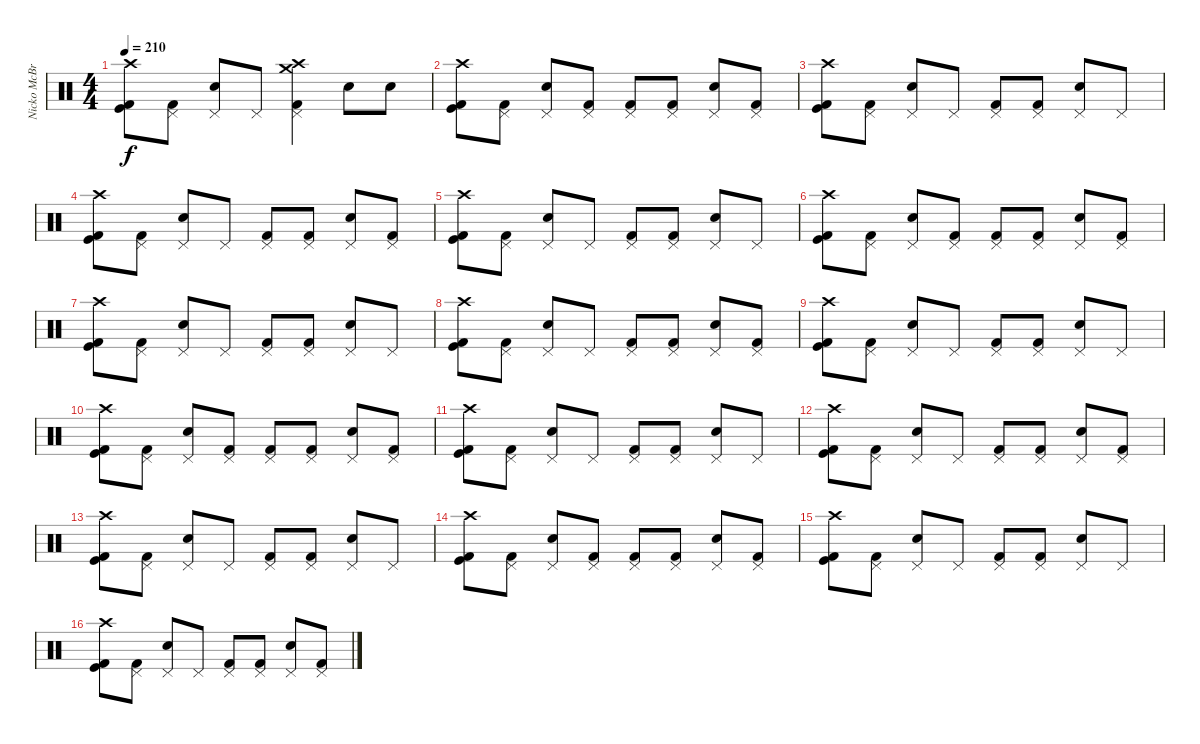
\track ("Nicko McBrain" "Nicko McBr") {instrument percussion}
\staff {score}
\articulation defaults
\ts (4 4)
\tempo 210
\clef neutral
\ks c
("Crash high (hit)" "Kick (hit)" "Kick (hit) 2").8{dy f} ("Pedal Hi-Hat (hit)" "Kick (hit) 2").8 ("Pedal Hi-Hat (hit)" "Snare (hit) 2").8 "Pedal Hi-Hat (hit)".8 ("Pedal Hi-Hat (hit)" "Crash medium (hit)" "Crash high (hit)" "Kick (hit) 2").4 "Snare (hit) 2".8 "Snare (hit) 2".8 |
("Crash high (hit)" "Kick (hit)" "Kick (hit) 2").8 ("Pedal Hi-Hat (hit)" "Kick (hit) 2").8 ("Pedal Hi-Hat (hit)" "Snare (hit) 2").8 ("Pedal Hi-Hat (hit)" "Kick (hit) 2").8 ("Pedal Hi-Hat (hit)" "Kick (hit) 2").8 ("Pedal Hi-Hat (hit)" "Kick (hit) 2").8 ("Pedal Hi-Hat (hit)" "Snare (hit) 2").8 ("Pedal Hi-Hat (hit)" "Kick (hit) 2").8 |
("Crash high (hit)" "Kick (hit)" "Kick (hit) 2").8 ("Pedal Hi-Hat (hit)" "Kick (hit) 2").8 ("Pedal Hi-Hat (hit)" "Snare (hit) 2").8 "Pedal Hi-Hat (hit)".8 ("Pedal Hi-Hat (hit)" "Kick (hit) 2").8 ("Pedal Hi-Hat (hit)" "Kick (hit) 2").8 ("Pedal Hi-Hat (hit)" "Snare (hit) 2").8 "Pedal Hi-Hat (hit)".8 |
("Crash high (hit)" "Kick (hit)" "Kick (hit) 2").8 ("Pedal Hi-Hat (hit)" "Kick (hit) 2").8 ("Pedal Hi-Hat (hit)" "Snare (hit) 2").8 "Pedal Hi-Hat (hit)".8 ("Pedal Hi-Hat (hit)" "Kick (hit) 2").8 ("Pedal Hi-Hat (hit)" "Kick (hit) 2").8 ("Pedal Hi-Hat (hit)" "Snare (hit) 2").8 ("Pedal Hi-Hat (hit)" "Kick (hit) 2").8 |
("Crash high (hit)" "Kick (hit)" "Kick (hit) 2").8 ("Pedal Hi-Hat (hit)" "Kick (hit) 2").8 ("Pedal Hi-Hat (hit)" "Snare (hit) 2").8 "Pedal Hi-Hat (hit)".8 ("Pedal Hi-Hat (hit)" "Kick (hit) 2").8 ("Pedal Hi-Hat (hit)" "Kick (hit) 2").8 ("Pedal Hi-Hat (hit)" "Snare (hit) 2").8 "Pedal Hi-Hat (hit)".8 |
("Crash high (hit)" "Kick (hit)" "Kick (hit) 2").8 ("Pedal Hi-Hat (hit)" "Kick (hit) 2").8 ("Pedal Hi-Hat (hit)" "Snare (hit) 2").8 ("Pedal Hi-Hat (hit)" "Kick (hit) 2").8 ("Pedal Hi-Hat (hit)" "Kick (hit) 2").8 ("Pedal Hi-Hat (hit)" "Kick (hit) 2").8 ("Pedal Hi-Hat (hit)" "Snare (hit) 2").8 ("Pedal Hi-Hat (hit)" "Kick (hit) 2").8 |
("Crash high (hit)" "Kick (hit)" "Kick (hit) 2").8 ("Pedal Hi-Hat (hit)" "Kick (hit) 2").8 ("Pedal Hi-Hat (hit)" "Snare (hit) 2").8 "Pedal Hi-Hat (hit)".8 ("Pedal Hi-Hat (hit)" "Kick (hit) 2").8 ("Pedal Hi-Hat (hit)" "Kick (hit) 2").8 ("Pedal Hi-Hat (hit)" "Snare (hit) 2").8 "Pedal Hi-Hat (hit)".8 |
("Crash high (hit)" "Kick (hit)" "Kick (hit) 2").8 ("Pedal Hi-Hat (hit)" "Kick (hit) 2").8 ("Pedal Hi-Hat (hit)" "Snare (hit) 2").8 "Pedal Hi-Hat (hit)".8 ("Pedal Hi-Hat (hit)" "Kick (hit) 2").8 ("Pedal Hi-Hat (hit)" "Kick (hit) 2").8 ("Pedal Hi-Hat (hit)" "Snare (hit) 2").8 ("Pedal Hi-Hat (hit)" "Kick (hit) 2").8 |
("Crash high (hit)" "Kick (hit)" "Kick (hit) 2").8 ("Pedal Hi-Hat (hit)" "Kick (hit) 2").8 ("Pedal Hi-Hat (hit)" "Snare (hit) 2").8 "Pedal Hi-Hat (hit)".8 ("Pedal Hi-Hat (hit)" "Kick (hit) 2").8 ("Pedal Hi-Hat (hit)" "Kick (hit) 2").8 ("Pedal Hi-Hat (hit)" "Snare (hit) 2").8 "Pedal Hi-Hat (hit)".8 |
("Crash high (hit)" "Kick (hit)" "Kick (hit) 2").8 ("Pedal Hi-Hat (hit)" "Kick (hit) 2").8 ("Pedal Hi-Hat (hit)" "Snare (hit) 2").8 ("Pedal Hi-Hat (hit)" "Kick (hit) 2").8 ("Pedal Hi-Hat (hit)" "Kick (hit) 2").8 ("Pedal Hi-Hat (hit)" "Kick (hit) 2").8 ("Pedal Hi-Hat (hit)" "Snare (hit) 2").8 ("Pedal Hi-Hat (hit)" "Kick (hit) 2").8 |
("Crash high (hit)" "Kick (hit)" "Kick (hit) 2").8 ("Pedal Hi-Hat (hit)" "Kick (hit) 2").8 ("Pedal Hi-Hat (hit)" "Snare (hit) 2").8 "Pedal Hi-Hat (hit)".8 ("Pedal Hi-Hat (hit)" "Kick (hit) 2").8 ("Pedal Hi-Hat (hit)" "Kick (hit) 2").8 ("Pedal Hi-Hat (hit)" "Snare (hit) 2").8 "Pedal Hi-Hat (hit)".8 |
("Crash high (hit)" "Kick (hit)" "Kick (hit) 2").8 ("Pedal Hi-Hat (hit)" "Kick (hit) 2").8 ("Pedal Hi-Hat (hit)" "Snare (hit) 2").8 "Pedal Hi-Hat (hit)".8 ("Pedal Hi-Hat (hit)" "Kick (hit) 2").8 ("Pedal Hi-Hat (hit)" "Kick (hit) 2").8 ("Pedal Hi-Hat (hit)" "Snare (hit) 2").8 ("Pedal Hi-Hat (hit)" "Kick (hit) 2").8 |
("Crash high (hit)" "Kick (hit)" "Kick (hit) 2").8 ("Pedal Hi-Hat (hit)" "Kick (hit) 2").8 ("Pedal Hi-Hat (hit)" "Snare (hit) 2").8 "Pedal Hi-Hat (hit)".8 ("Pedal Hi-Hat (hit)" "Kick (hit) 2").8 ("Pedal Hi-Hat (hit)" "Kick (hit) 2").8 ("Pedal Hi-Hat (hit)" "Snare (hit) 2").8 "Pedal Hi-Hat (hit)".8 |
("Crash high (hit)" "Kick (hit)" "Kick (hit) 2").8 ("Pedal Hi-Hat (hit)" "Kick (hit) 2").8 ("Pedal Hi-Hat (hit)" "Snare (hit) 2").8 ("Pedal Hi-Hat (hit)" "Kick (hit) 2").8 ("Pedal Hi-Hat (hit)" "Kick (hit) 2").8 ("Pedal Hi-Hat (hit)" "Kick (hit) 2").8 ("Pedal Hi-Hat (hit)" "Snare (hit) 2").8 ("Pedal Hi-Hat (hit)" "Kick (hit) 2").8 |
("Crash high (hit)" "Kick (hit)" "Kick (hit) 2").8 ("Pedal Hi-Hat (hit)" "Kick (hit) 2").8 ("Pedal Hi-Hat (hit)" "Snare (hit) 2").8 "Pedal Hi-Hat (hit)".8 ("Pedal Hi-Hat (hit)" "Kick (hit) 2").8 ("Pedal Hi-Hat (hit)" "Kick (hit) 2").8 ("Pedal Hi-Hat (hit)" "Snare (hit) 2").8 "Pedal Hi-Hat (hit)".8 |
("Crash high (hit)" "Kick (hit)" "Kick (hit) 2").8 ("Pedal Hi-Hat (hit)" "Kick (hit) 2").8 ("Pedal Hi-Hat (hit)" "Snare (hit) 2").8 "Pedal Hi-Hat (hit)".8 ("Pedal Hi-Hat (hit)" "Kick (hit) 2").8 ("Pedal Hi-Hat (hit)" "Kick (hit) 2").8 ("Pedal Hi-Hat (hit)" "Snare (hit) 2").8 ("Pedal Hi-Hat (hit)" "Kick (hit) 2").8
